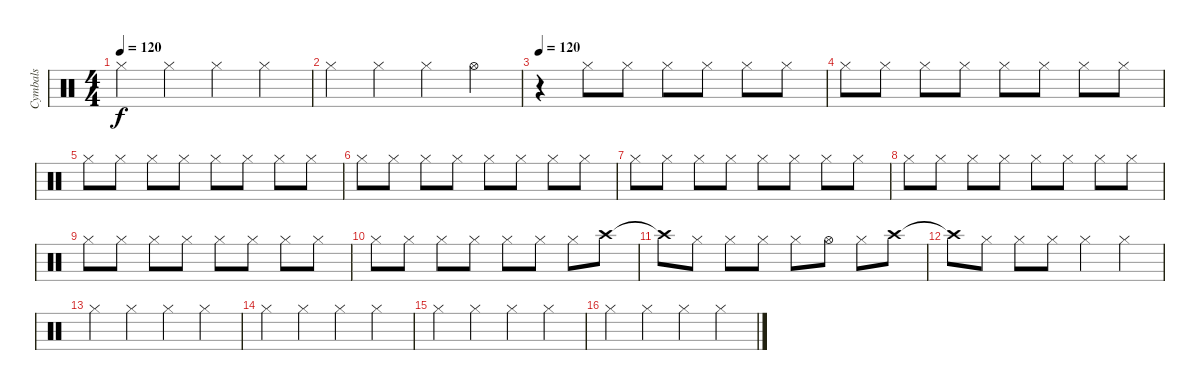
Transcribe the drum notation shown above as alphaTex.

\track ("Cymbals" "Cymbals") {instrument percussion}
\staff {score}
\articulation defaults
\ts (4 4)
\tempo 120
\clef neutral
\ks c "Hi-Hat (closed)".4{dy f} "Hi-Hat (closed)".4 "Hi-Hat (closed)".4 "Hi-Hat (closed)".4
|
"Hi-Hat (closed)".4 "Hi-Hat (closed)".4 "Hi-Hat (closed)".4 "Hi-Hat (open)".4 |
\tempo 120
r.4 "Hi-Hat (closed)".8 "Hi-Hat (closed)".8 "Hi-Hat (closed)".8 "Hi-Hat (closed)".8 "Hi-Hat (closed)".8 "Hi-Hat (closed)".8 |
"Hi-Hat (closed)".8 "Hi-Hat (closed)".8 "Hi-Hat (closed)".8 "Hi-Hat (closed)".8 "Hi-Hat (closed)".8 "Hi-Hat (closed)".8 "Hi-Hat (closed)".8 "Hi-Hat (closed)".8 |
"Hi-Hat (closed)".8 "Hi-Hat (closed)".8 "Hi-Hat (closed)".8 "Hi-Hat (closed)".8 "Hi-Hat (closed)".8 "Hi-Hat (closed)".8 "Hi-Hat (closed)".8 "Hi-Hat (closed)".8 |
"Hi-Hat (closed)".8 "Hi-Hat (closed)".8 "Hi-Hat (closed)".8 "Hi-Hat (closed)".8 "Hi-Hat (closed)".8 "Hi-Hat (closed)".8 "Hi-Hat (closed)".8 "Hi-Hat (closed)".8 |
"Hi-Hat (closed)".8 "Hi-Hat (closed)".8 "Hi-Hat (closed)".8 "Hi-Hat (closed)".8 "Hi-Hat (closed)".8 "Hi-Hat (closed)".8 "Hi-Hat (closed)".8 "Hi-Hat (closed)".8 |
"Hi-Hat (closed)".8 "Hi-Hat (closed)".8 "Hi-Hat (closed)".8 "Hi-Hat (closed)".8 "Hi-Hat (closed)".8 "Hi-Hat (closed)".8 "Hi-Hat (closed)".8 "Hi-Hat (closed)".8 |
"Hi-Hat (closed)".8 "Hi-Hat (closed)".8 "Hi-Hat (closed)".8 "Hi-Hat (closed)".8 "Hi-Hat (closed)".8 "Hi-Hat (closed)".8 "Hi-Hat (closed)".8 "Hi-Hat (closed)".8 |
"Hi-Hat (closed)".8 "Hi-Hat (closed)".8 "Hi-Hat (closed)".8 "Hi-Hat (closed)".8 "Hi-Hat (closed)".8 "Hi-Hat (closed)".8 "Hi-Hat (closed)".8 "Crash high (hit)".8 |
"Crash high (hit)"{t}.8 "Hi-Hat (closed)".8 "Hi-Hat (closed)".8 "Hi-Hat (closed)".8 "Hi-Hat (closed)".8 "Hi-Hat (open)".8 "Hi-Hat (closed)".8 "Crash high (hit)".8 |
"Crash high (hit)"{t}.8 "Hi-Hat (closed)".8 "Hi-Hat (closed)".8 "Hi-Hat (closed)".8 "Hi-Hat (closed)".4 "Hi-Hat (closed)".4 |
"Hi-Hat (closed)".4 "Hi-Hat (closed)".4 "Hi-Hat (closed)".4 "Hi-Hat (closed)".4 |
"Hi-Hat (closed)".4 "Hi-Hat (closed)".4 "Hi-Hat (closed)".4 "Hi-Hat (closed)".4 |
"Hi-Hat (closed)".4 "Hi-Hat (closed)".4 "Hi-Hat (closed)".4 "Hi-Hat (closed)".4 |
"Hi-Hat (closed)".4 "Hi-Hat (closed)".4 "Hi-Hat (closed)".4 "Hi-Hat (closed)".4
